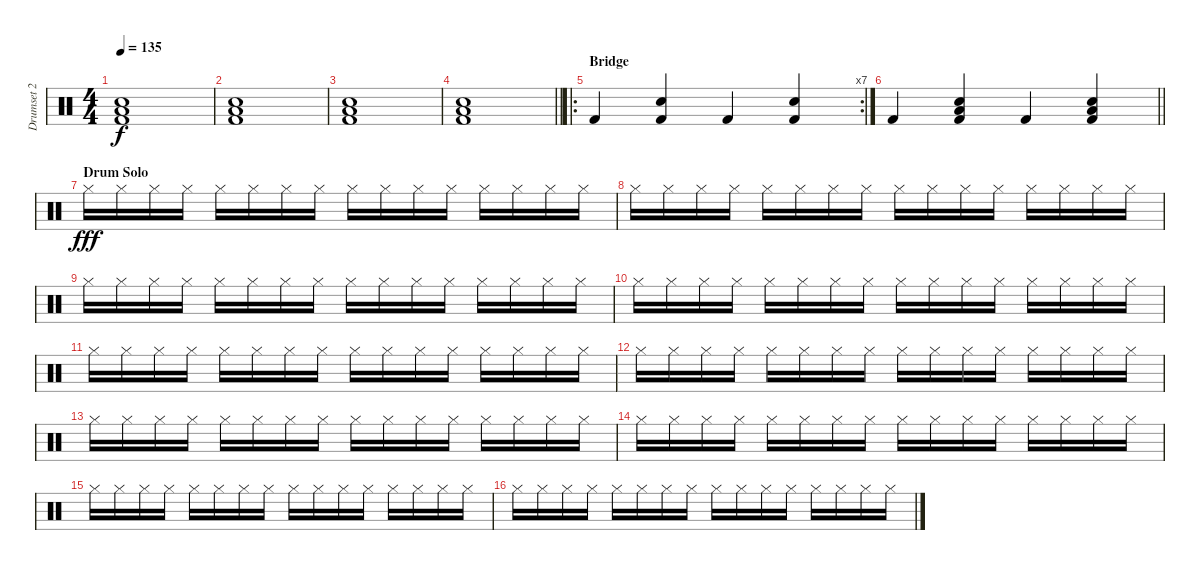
\track ("Drumset 2" "Drumset 2") {instrument percussion}
\staff {score}
\articulation defaults
\ts (4 4)
\tempo 135
\clef neutral
\ks c
("Electric Snare (hit)" "Low Floor Tom (hit)" "Kick (hit) 2").1{dy f} |
("Electric Snare (hit)" "Low Floor Tom (hit)" "Kick (hit) 2").1 |
("Electric Snare (hit)" "Low Floor Tom (hit)" "Kick (hit) 2").1 |
\barLineRight lightlight
("Electric Snare (hit)" "Low Floor Tom (hit)" "Kick (hit) 2").1 |
\ro
\rc 7
\section ("" "Bridge")
"Kick (hit) 2".4 ("Electric Snare (hit)" "Kick (hit) 2").4 "Kick (hit) 2".4 ("Electric Snare (hit)" "Kick (hit) 2").4 |
\barLineRight lightlight "Kick (hit) 2".4
("Electric Snare (hit)" "Low Floor Tom (hit)" "Kick (hit) 2").4 "Kick (hit) 2".4 ("Electric Snare (hit)" "Low Floor Tom (hit)" "Kick (hit) 2").4 |
\section ("" "Drum Solo")
"Hi-Hat (closed)".16{dy fff} "Hi-Hat (closed)".16 "Hi-Hat (closed)".16 "Hi-Hat (closed)".16 "Hi-Hat (closed)".16 "Hi-Hat (closed)".16 "Hi-Hat (closed)".16 "Hi-Hat (closed)".16 "Hi-Hat (closed)".16 "Hi-Hat (closed)".16 "Hi-Hat (closed)".16 "Hi-Hat (closed)".16 "Hi-Hat (closed)".16 "Hi-Hat (closed)".16 "Hi-Hat (closed)".16 "Hi-Hat (closed)".16 |
"Hi-Hat (closed)".16 "Hi-Hat (closed)".16 "Hi-Hat (closed)".16 "Hi-Hat (closed)".16 "Hi-Hat (closed)".16 "Hi-Hat (closed)".16 "Hi-Hat (closed)".16 "Hi-Hat (closed)".16 "Hi-Hat (closed)".16 "Hi-Hat (closed)".16 "Hi-Hat (closed)".16 "Hi-Hat (closed)".16 "Hi-Hat (closed)".16 "Hi-Hat (closed)".16 "Hi-Hat (closed)".16 "Hi-Hat (closed)".16 |
"Hi-Hat (closed)".16 "Hi-Hat (closed)".16 "Hi-Hat (closed)".16 "Hi-Hat (closed)".16 "Hi-Hat (closed)".16 "Hi-Hat (closed)".16 "Hi-Hat (closed)".16 "Hi-Hat (closed)".16 "Hi-Hat (closed)".16 "Hi-Hat (closed)".16 "Hi-Hat (closed)".16 "Hi-Hat (closed)".16 "Hi-Hat (closed)".16 "Hi-Hat (closed)".16 "Hi-Hat (closed)".16 "Hi-Hat (closed)".16 |
"Hi-Hat (closed)".16 "Hi-Hat (closed)".16 "Hi-Hat (closed)".16 "Hi-Hat (closed)".16 "Hi-Hat (closed)".16 "Hi-Hat (closed)".16 "Hi-Hat (closed)".16 "Hi-Hat (closed)".16 "Hi-Hat (closed)".16 "Hi-Hat (closed)".16 "Hi-Hat (closed)".16 "Hi-Hat (closed)".16 "Hi-Hat (closed)".16 "Hi-Hat (closed)".16 "Hi-Hat (closed)".16 "Hi-Hat (closed)".16 |
"Hi-Hat (closed)".16 "Hi-Hat (closed)".16 "Hi-Hat (closed)".16 "Hi-Hat (closed)".16 "Hi-Hat (closed)".16 "Hi-Hat (closed)".16 "Hi-Hat (closed)".16 "Hi-Hat (closed)".16 "Hi-Hat (closed)".16 "Hi-Hat (closed)".16 "Hi-Hat (closed)".16 "Hi-Hat (closed)".16 "Hi-Hat (closed)".16 "Hi-Hat (closed)".16 "Hi-Hat (closed)".16 "Hi-Hat (closed)".16 |
"Hi-Hat (closed)".16 "Hi-Hat (closed)".16 "Hi-Hat (closed)".16 "Hi-Hat (closed)".16 "Hi-Hat (closed)".16 "Hi-Hat (closed)".16 "Hi-Hat (closed)".16 "Hi-Hat (closed)".16 "Hi-Hat (closed)".16 "Hi-Hat (closed)".16 "Hi-Hat (closed)".16 "Hi-Hat (closed)".16 "Hi-Hat (closed)".16 "Hi-Hat (closed)".16 "Hi-Hat (closed)".16 "Hi-Hat (closed)".16 |
"Hi-Hat (closed)".16 "Hi-Hat (closed)".16 "Hi-Hat (closed)".16 "Hi-Hat (closed)".16 "Hi-Hat (closed)".16 "Hi-Hat (closed)".16 "Hi-Hat (closed)".16 "Hi-Hat (closed)".16 "Hi-Hat (closed)".16 "Hi-Hat (closed)".16 "Hi-Hat (closed)".16 "Hi-Hat (closed)".16 "Hi-Hat (closed)".16 "Hi-Hat (closed)".16 "Hi-Hat (closed)".16 "Hi-Hat (closed)".16 |
"Hi-Hat (closed)".16 "Hi-Hat (closed)".16 "Hi-Hat (closed)".16 "Hi-Hat (closed)".16 "Hi-Hat (closed)".16 "Hi-Hat (closed)".16 "Hi-Hat (closed)".16 "Hi-Hat (closed)".16 "Hi-Hat (closed)".16 "Hi-Hat (closed)".16 "Hi-Hat (closed)".16 "Hi-Hat (closed)".16 "Hi-Hat (closed)".16 "Hi-Hat (closed)".16 "Hi-Hat (closed)".16 "Hi-Hat (closed)".16 |
"Hi-Hat (closed)".16 "Hi-Hat (closed)".16 "Hi-Hat (closed)".16 "Hi-Hat (closed)".16 "Hi-Hat (closed)".16 "Hi-Hat (closed)".16 "Hi-Hat (closed)".16 "Hi-Hat (closed)".16 "Hi-Hat (closed)".16 "Hi-Hat (closed)".16 "Hi-Hat (closed)".16 "Hi-Hat (closed)".16 "Hi-Hat (closed)".16 "Hi-Hat (closed)".16 "Hi-Hat (closed)".16 "Hi-Hat (closed)".16 |
"Hi-Hat (closed)".16 "Hi-Hat (closed)".16 "Hi-Hat (closed)".16 "Hi-Hat (closed)".16 "Hi-Hat (closed)".16 "Hi-Hat (closed)".16 "Hi-Hat (closed)".16 "Hi-Hat (closed)".16 "Hi-Hat (closed)".16 "Hi-Hat (closed)".16 "Hi-Hat (closed)".16 "Hi-Hat (closed)".16 "Hi-Hat (closed)".16 "Hi-Hat (closed)".16 "Hi-Hat (closed)".16 "Hi-Hat (closed)".16
